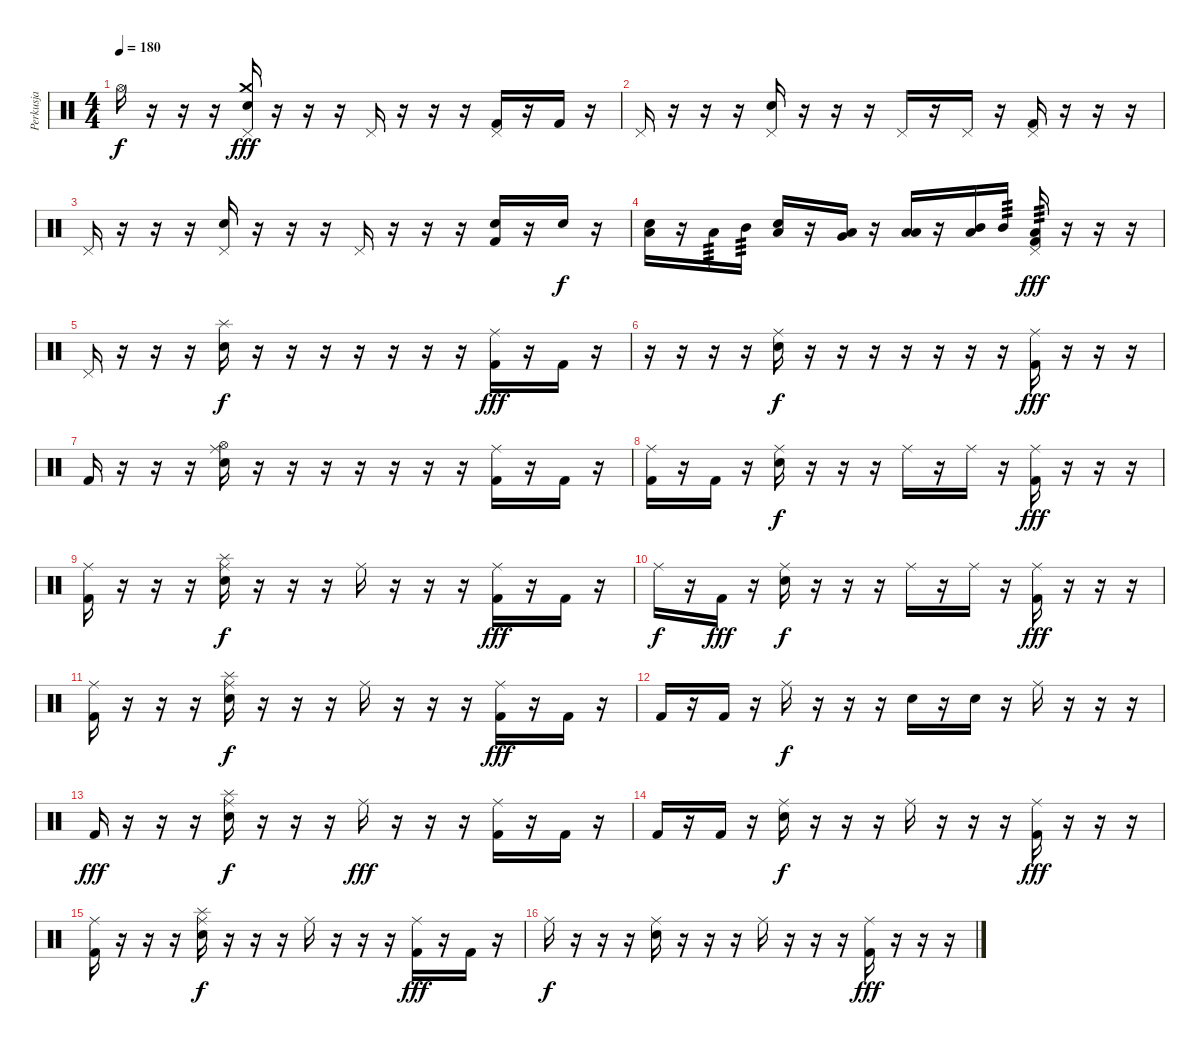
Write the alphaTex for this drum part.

\track ("Perkusja" "Perkusja") {instrument percussion}
\staff {score}
\articulation defaults
\ts (4 4)
\tempo 180
\clef neutral
\ks c "Hi-Hat (open)".16{dy f}
r.16 r.16 r.16 ("Snare (hit) 2" "Crash medium (hit)" "Pedal Hi-Hat (hit)").16{dy fff} r.16 r.16 r.16 "Pedal Hi-Hat (hit)".16 r.16 r.16 r.16 ("Pedal Hi-Hat (hit)" "Kick (hit) 2").16 r.16 "Kick (hit) 2".16 r.16 |
"Pedal Hi-Hat (hit)".16 r.16 r.16 r.16 ("Snare (hit) 2" "Pedal Hi-Hat (hit)").16 r.16 r.16 r.16 "Pedal Hi-Hat (hit)".16 r.16 "Pedal Hi-Hat (hit)".16 r.16 ("Pedal Hi-Hat (hit)" "Kick (hit) 2").16 r.16 r.16 r.16 |
"Pedal Hi-Hat (hit)".16 r.16 r.16 r.16 ("Snare (hit) 2" "Pedal Hi-Hat (hit)").16 r.16 r.16 r.16 "Pedal Hi-Hat (hit)".16 r.16 r.16 r.16 ("Snare (hit) 2" "Kick (hit) 2").16 r.16 "Snare (hit) 2".16{dy f} r.16 |
("Snare (hit) 2" "Low Tom (hit)").16 r.16 "Low Tom (hit)".16{tp 3} "Mid Tom (hit)".16{tp 3} ("Snare (hit) 2" "Low Tom (hit)").16 r.16 ("Very Low Tom (hit)" "Low Tom (hit)").16 r.16 ("Low Tom (hit)" "Low Tom (hit)").16 r.16 ("Mid Tom (hit)" "Low Tom (hit)").16 "Mid Tom (hit)".16{tp 3} ("Low Tom (hit)" "Pedal Hi-Hat (hit)" "Kick (hit) 2").16{tp 3 dy fff} r.16 r.16 r.16 |
"Pedal Hi-Hat (hit)".16 r.16 r.16 r.16 ("Snare (hit) 2" "Splash (hit)").16{dy f} r.16 r.16 r.16 r.16 r.16 r.16 r.16 ("Ride (middle)" "Kick (hit) 2").16{dy fff} r.16 "Kick (hit) 2".16 r.16 |
r.16 r.16 r.16 r.16 ("Snare (hit) 2" "Ride (middle)").16{dy f} r.16 r.16 r.16 r.16 r.16 r.16 r.16 ("Ride (middle)" "Kick (hit) 2").16{dy fff} r.16 r.16 r.16 |
"Kick (hit) 2".16 r.16 r.16 r.16 ("Snare (hit) 2" "Hi-Hat (open)" "Ride (middle)").16 r.16 r.16 r.16 r.16 r.16 r.16 r.16 ("Ride (middle)" "Kick (hit) 2").16 r.16 "Kick (hit) 2".16 r.16 |
("Ride (middle)" "Kick (hit) 2").16 r.16 "Kick (hit) 2".16 r.16 ("Snare (hit) 2" "Ride (middle)").16{dy f} r.16 r.16 r.16 "Ride (middle)".16 r.16 "Ride (middle)".16 r.16 ("Ride (middle)" "Kick (hit) 2").16{dy fff} r.16 r.16 r.16 |
("Ride (middle)" "Kick (hit) 2").16 r.16 r.16 r.16 ("Snare (hit) 2" "Splash (hit)" "Ride (middle)").16{dy f} r.16 r.16 r.16 "Ride (middle)".16 r.16 r.16 r.16 ("Ride (middle)" "Kick (hit) 2").16{dy fff} r.16 "Kick (hit) 2".16 r.16 |
"Ride (middle)".16{dy f} r.16 "Kick (hit) 2".16{dy fff} r.16 ("Snare (hit) 2" "Ride (middle)").16{dy f} r.16 r.16 r.16 "Ride (middle)".16 r.16 "Ride (middle)".16 r.16 ("Ride (middle)" "Kick (hit) 2").16{dy fff} r.16 r.16 r.16 |
("Ride (middle)" "Kick (hit) 2").16 r.16 r.16 r.16 ("Snare (hit) 2" "Splash (hit)" "Ride (middle)").16{dy f} r.16 r.16 r.16 "Ride (middle)".16 r.16 r.16 r.16 ("Ride (middle)" "Kick (hit) 2").16{dy fff} r.16 "Kick (hit) 2".16 r.16 |
"Kick (hit) 2".16 r.16 "Kick (hit) 2".16 r.16 "Ride (middle)".16{dy f} r.16 r.16 r.16 "Snare (hit) 2".16 r.16 "Snare (hit) 2".16 r.16 "Ride (middle)".16 r.16 r.16 r.16 |
"Kick (hit) 2".16{dy fff} r.16 r.16 r.16 ("Snare (hit) 2" "Splash (hit)" "Ride (middle)").16{dy f} r.16 r.16 r.16 "Ride (middle)".16{dy fff} r.16 r.16 r.16 ("Ride (middle)" "Kick (hit) 2").16 r.16 "Kick (hit) 2".16 r.16 |
"Kick (hit) 2".16 r.16 "Kick (hit) 2".16 r.16 ("Snare (hit) 2" "Ride (middle)").16{dy f} r.16 r.16 r.16 "Ride (middle)".16 r.16 r.16 r.16 ("Ride (middle)" "Kick (hit) 2").16{dy fff} r.16 r.16 r.16 |
("Ride (middle)" "Kick (hit) 2").16 r.16 r.16 r.16 ("Snare (hit) 2" "Splash (hit)" "Ride (middle)").16{dy f} r.16 r.16 r.16 "Ride (middle)".16 r.16 r.16 r.16 ("Ride (middle)" "Kick (hit) 2").16{dy fff} r.16 "Kick (hit) 2".16 r.16 |
"Ride (middle)".16{dy f} r.16 r.16 r.16 ("Snare (hit) 2" "Ride (middle)").16 r.16 r.16 r.16 "Ride (middle)".16 r.16 r.16 r.16 ("Ride (middle)" "Kick (hit) 2").16{dy fff} r.16 r.16 r.16
